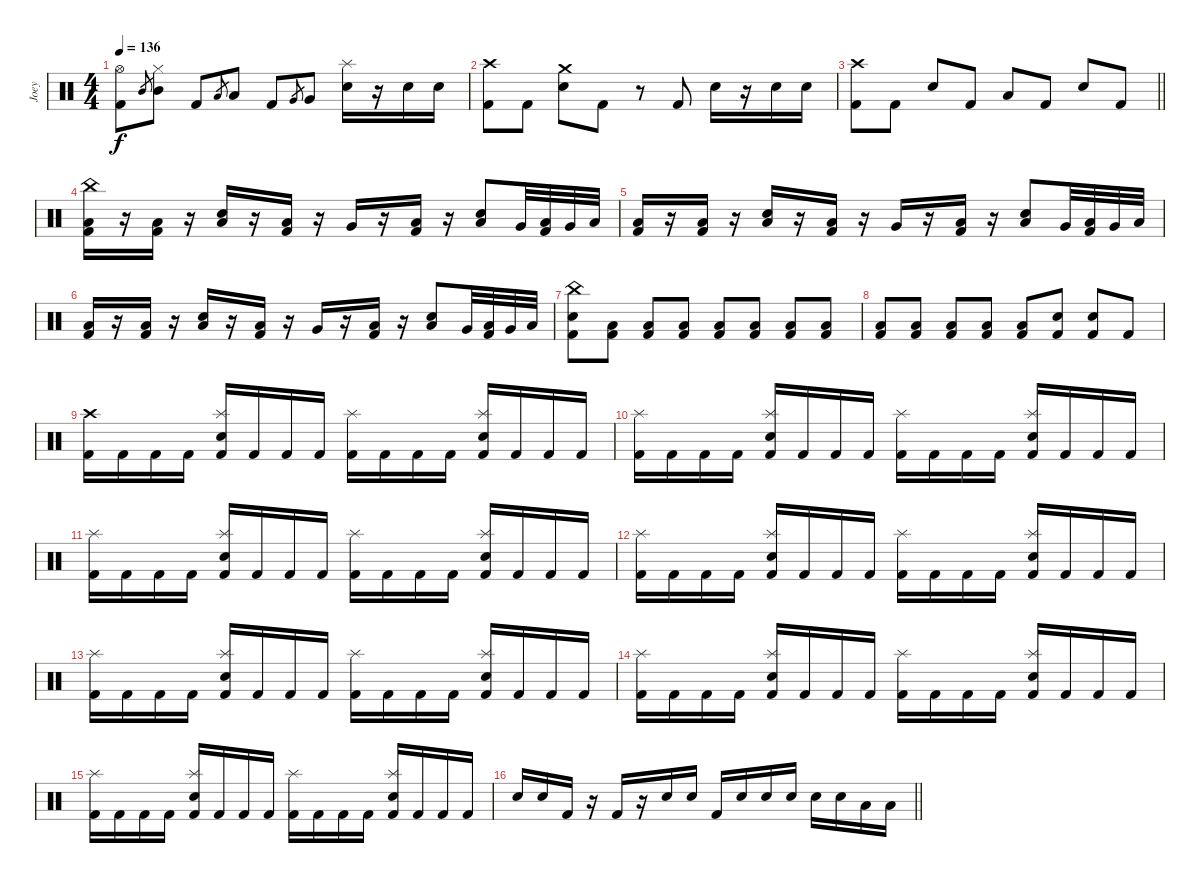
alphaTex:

\track ("Joey" "Joey") {instrument percussion}
\staff {score}
\articulation defaults
\ts (4 4)
\tempo 136
\clef neutral
\ks c
("Hi-Hat (open)" "Kick (hit) 2").8{dy f} "Mid Tom (hit)".8{gr} ("Hi-Hat (closed)" "Mid Tom (hit)").8 "Kick (hit) 2".8 "Low Tom (hit)".8{gr} "Low Tom (hit)".8 "Kick (hit) 2".8 "Very Low Tom (hit)".8{gr} "Very Low Tom (hit)".8 ("Splash (hit)" "Snare (hit) 2").16 r.16 "Snare (hit) 2".16 "Snare (hit) 2".16 |
("Crash high (hit)" "Kick (hit) 2").8 "Kick (hit) 2".8 ("Crash medium (hit)" "Snare (hit) 2").8 "Kick (hit) 2".8 r.8 "Kick (hit) 2".8 "Snare (hit) 2".16 r.16 "Snare (hit) 2".16 "Snare (hit) 2".16 |
\barLineRight lightlight
("Crash high (hit)" "Kick (hit) 2").8 "Kick (hit) 2".8 "Snare (hit) 2".8 "Kick (hit) 2".8 "Low Floor Tom (hit)".8 "Kick (hit) 2".8 "Snare (hit) 2".8 "Kick (hit) 2".8 |
("China (hit)" "Low Floor Tom (hit)" "Kick (hit) 2").16 r.16 ("Low Floor Tom (hit)" "Kick (hit) 2").16 r.16 ("Low Floor Tom (hit)" "Snare (hit) 2").16 r.16 ("Low Floor Tom (hit)" "Kick (hit) 2").16 r.16 "Very Low Tom (hit)".16 r.16 ("Low Floor Tom (hit)" "Kick (hit) 2").16 r.16 ("Low Floor Tom (hit)" "Snare (hit) 2").8 "Very Low Tom (hit)".32 ("Low Floor Tom (hit)" "Kick (hit) 2").32 "Very Low Tom (hit)".32 "Low Floor Tom (hit)".32 |
("Low Floor Tom (hit)" "Kick (hit) 2").16 r.16 ("Low Floor Tom (hit)" "Kick (hit) 2").16 r.16 ("Low Floor Tom (hit)" "Snare (hit) 2").16 r.16 ("Low Floor Tom (hit)" "Kick (hit) 2").16 r.16 "Very Low Tom (hit)".16 r.16 ("Low Floor Tom (hit)" "Kick (hit) 2").16 r.16 ("Low Floor Tom (hit)" "Snare (hit) 2").8 "Very Low Tom (hit)".32 ("Low Floor Tom (hit)" "Kick (hit) 2").32 "Very Low Tom (hit)".32 "Low Floor Tom (hit)".32 |
("Low Floor Tom (hit)" "Kick (hit) 2").16 r.16 ("Low Floor Tom (hit)" "Kick (hit) 2").16 r.16 ("Low Floor Tom (hit)" "Snare (hit) 2").16 r.16 ("Low Floor Tom (hit)" "Kick (hit) 2").16 r.16 "Very Low Tom (hit)".16 r.16 ("Low Floor Tom (hit)" "Kick (hit) 2").16 r.16 ("Low Floor Tom (hit)" "Snare (hit) 2").8 "Very Low Tom (hit)".32 ("Low Floor Tom (hit)" "Kick (hit) 2").32 "Very Low Tom (hit)".32 "Low Floor Tom (hit)".32 |
("China (hit)" "Snare (hit) 2" "Kick (hit) 2").8 ("Low Floor Tom (hit)" "Kick (hit) 2").8 ("Low Floor Tom (hit)" "Kick (hit) 2").8 ("Low Floor Tom (hit)" "Kick (hit) 2").8 ("Low Floor Tom (hit)" "Kick (hit) 2").8 ("Low Floor Tom (hit)" "Kick (hit) 2").8 ("Low Floor Tom (hit)" "Kick (hit) 2").8 ("Low Floor Tom (hit)" "Kick (hit) 2").8 |
("Low Floor Tom (hit)" "Kick (hit) 2").8 ("Low Floor Tom (hit)" "Kick (hit) 2").8 ("Low Floor Tom (hit)" "Kick (hit) 2").8 ("Low Floor Tom (hit)" "Kick (hit) 2").8 ("Low Floor Tom (hit)" "Kick (hit) 2").8 ("Snare (hit) 2" "Kick (hit) 2").8 ("Snare (hit) 2" "Kick (hit) 2").8 "Kick (hit) 2".8 |
("Crash high (hit)" "Kick (hit) 2").16 "Kick (hit) 2".16 "Kick (hit) 2".16 "Kick (hit) 2".16 ("Splash (hit)" "Snare (hit) 2" "Kick (hit) 2").16 "Kick (hit) 2".16 "Kick (hit) 2".16 "Kick (hit) 2".16 ("Splash (hit)" "Kick (hit) 2").16 "Kick (hit) 2".16 "Kick (hit) 2".16 "Kick (hit) 2".16 ("Splash (hit)" "Snare (hit) 2" "Kick (hit) 2").16 "Kick (hit) 2".16 "Kick (hit) 2".16 "Kick (hit) 2".16 |
("Splash (hit)" "Kick (hit) 2").16 "Kick (hit) 2".16 "Kick (hit) 2".16 "Kick (hit) 2".16 ("Splash (hit)" "Snare (hit) 2" "Kick (hit) 2").16 "Kick (hit) 2".16 "Kick (hit) 2".16 "Kick (hit) 2".16 ("Splash (hit)" "Kick (hit) 2").16 "Kick (hit) 2".16 "Kick (hit) 2".16 "Kick (hit) 2".16 ("Splash (hit)" "Snare (hit) 2" "Kick (hit) 2").16 "Kick (hit) 2".16 "Kick (hit) 2".16 "Kick (hit) 2".16 |
("Splash (hit)" "Kick (hit) 2").16 "Kick (hit) 2".16 "Kick (hit) 2".16 "Kick (hit) 2".16 ("Splash (hit)" "Snare (hit) 2" "Kick (hit) 2").16 "Kick (hit) 2".16 "Kick (hit) 2".16 "Kick (hit) 2".16 ("Splash (hit)" "Kick (hit) 2").16 "Kick (hit) 2".16 "Kick (hit) 2".16 "Kick (hit) 2".16 ("Splash (hit)" "Snare (hit) 2" "Kick (hit) 2").16 "Kick (hit) 2".16 "Kick (hit) 2".16 "Kick (hit) 2".16 |
("Splash (hit)" "Kick (hit) 2").16 "Kick (hit) 2".16 "Kick (hit) 2".16 "Kick (hit) 2".16 ("Splash (hit)" "Snare (hit) 2" "Kick (hit) 2").16 "Kick (hit) 2".16 "Kick (hit) 2".16 "Kick (hit) 2".16 ("Splash (hit)" "Kick (hit) 2").16 "Kick (hit) 2".16 "Kick (hit) 2".16 "Kick (hit) 2".16 ("Splash (hit)" "Snare (hit) 2" "Kick (hit) 2").16 "Kick (hit) 2".16 "Kick (hit) 2".16 "Kick (hit) 2".16 |
("Splash (hit)" "Kick (hit) 2").16 "Kick (hit) 2".16 "Kick (hit) 2".16 "Kick (hit) 2".16 ("Splash (hit)" "Snare (hit) 2" "Kick (hit) 2").16 "Kick (hit) 2".16 "Kick (hit) 2".16 "Kick (hit) 2".16 ("Splash (hit)" "Kick (hit) 2").16 "Kick (hit) 2".16 "Kick (hit) 2".16 "Kick (hit) 2".16 ("Splash (hit)" "Snare (hit) 2" "Kick (hit) 2").16 "Kick (hit) 2".16 "Kick (hit) 2".16 "Kick (hit) 2".16 |
("Splash (hit)" "Kick (hit) 2").16 "Kick (hit) 2".16 "Kick (hit) 2".16 "Kick (hit) 2".16 ("Splash (hit)" "Snare (hit) 2" "Kick (hit) 2").16 "Kick (hit) 2".16 "Kick (hit) 2".16 "Kick (hit) 2".16 ("Splash (hit)" "Kick (hit) 2").16 "Kick (hit) 2".16 "Kick (hit) 2".16 "Kick (hit) 2".16 ("Splash (hit)" "Snare (hit) 2" "Kick (hit) 2").16 "Kick (hit) 2".16 "Kick (hit) 2".16 "Kick (hit) 2".16 |
("Splash (hit)" "Kick (hit) 2").16 "Kick (hit) 2".16 "Kick (hit) 2".16 "Kick (hit) 2".16 ("Splash (hit)" "Snare (hit) 2" "Kick (hit) 2").16 "Kick (hit) 2".16 "Kick (hit) 2".16 "Kick (hit) 2".16 ("Splash (hit)" "Kick (hit) 2").16 "Kick (hit) 2".16 "Kick (hit) 2".16 "Kick (hit) 2".16 ("Splash (hit)" "Snare (hit) 2" "Kick (hit) 2").16 "Kick (hit) 2".16 "Kick (hit) 2".16 "Kick (hit) 2".16 |
\barLineRight lightlight "Snare (hit) 2".16 "Snare (hit) 2".16 "Kick (hit) 2".16
r.16 "Kick (hit) 2".16 r.16 "Snare (hit) 2".16 "Snare (hit) 2".16 "Kick (hit) 2".16 "Snare (hit) 2".16 "Snare (hit) 2".16 "Snare (hit) 2".16 "Snare (hit) 2".16 "Snare (hit) 2".16 "Low Tom (hit)".16 "Low Tom (hit)".16
